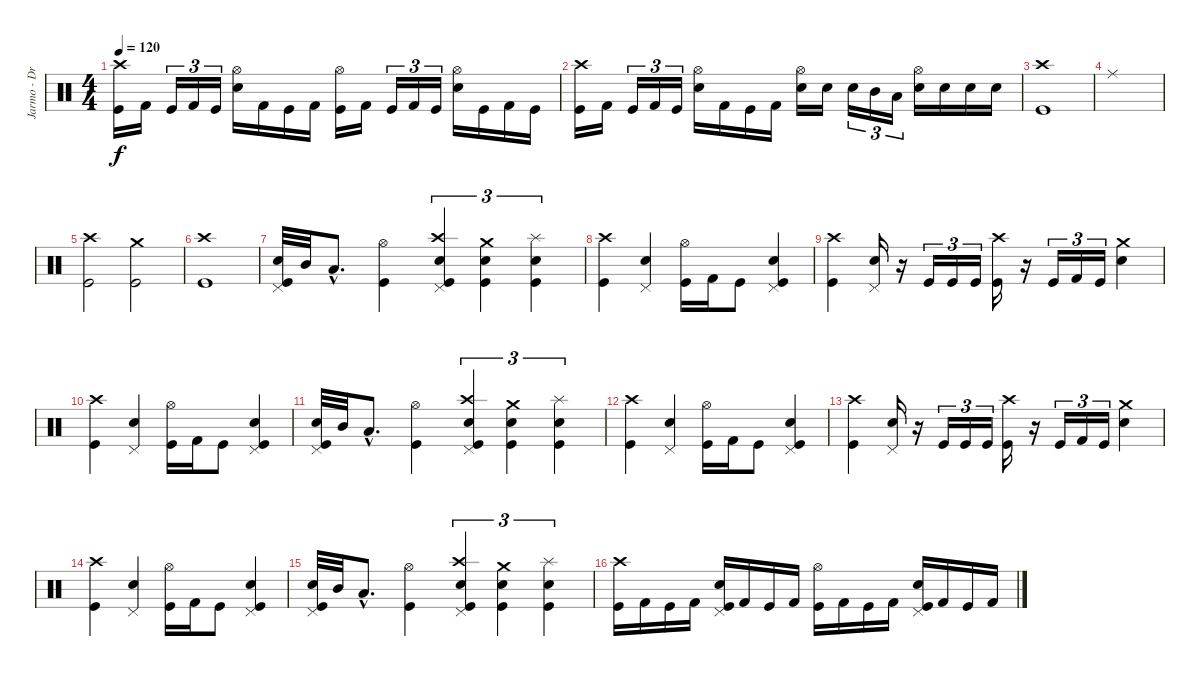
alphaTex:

\track ("Jarmo - Drums" "Jarmo - Dr") {instrument percussion}
\staff {score}
\articulation defaults
\ts (4 4)
\tempo 120
\clef neutral
\ks c
("Kick (hit)" "Crash high (hit)").16{dy f} "Kick (hit) 2".16 "Kick (hit)".16{tu (3 2)} "Kick (hit) 2".16{tu (3 2)} "Kick (hit)".16{tu (3 2)} ("Electric Snare (hit)" "Hi-Hat (open)").16 "Kick (hit) 2".16 "Kick (hit)".16 "Kick (hit) 2".16 ("Kick (hit)" "Hi-Hat (open)").16 "Kick (hit) 2".16 "Kick (hit)".16{tu (3 2)} "Kick (hit) 2".16{tu (3 2)} "Kick (hit)".16{tu (3 2)} ("Electric Snare (hit)" "Hi-Hat (open)").16 "Kick (hit)".16 "Kick (hit) 2".16 "Kick (hit)".16 |
("Kick (hit)" "Crash high (hit)").16 "Kick (hit) 2".16 "Kick (hit)".16{tu (3 2)} "Kick (hit) 2".16{tu (3 2)} "Kick (hit)".16{tu (3 2)} ("Electric Snare (hit)" "Hi-Hat (open)").16 "Kick (hit) 2".16 "Kick (hit)".16 "Kick (hit) 2".16 ("Electric Snare (hit)" "Hi-Hat (open)").16 "Electric Snare (hit)".16 "Electric Snare (hit)".16{tu (3 2)} "Mid Tom (hit)".16{tu (3 2)} "Low Tom (hit)".16{tu (3 2)} ("Electric Snare (hit)" "Hi-Hat (open)").16 "Electric Snare (hit)".16 "Electric Snare (hit)".16 "Electric Snare (hit)".16 |
("Kick (hit)" "Crash high (hit)").1 |
"Ride (middle)".1 |
("Kick (hit)" "Crash high (hit)").2 ("Kick (hit)" "Crash medium (hit)").2 |
("Kick (hit)" "Crash high (hit)").1 |
("Kick (hit)" "Electric Snare (hit)" "Pedal Hi-Hat (hit)").32 "Mid Tom (hit)".32 "Low Tom (hit)"{hac}.8{d} ("Kick (hit)" "Hi-Hat (open)").4 ("Kick (hit)" "Electric Snare (hit)" "Pedal Hi-Hat (hit)" "Crash high (hit)").4{tu (3 2)} ("Kick (hit)" "Electric Snare (hit)" "Crash medium (hit)").4{tu (3 2)} ("Kick (hit)" "Electric Snare (hit)" "Splash (hit)").4{tu (3 2)} |
("Kick (hit)" "Crash high (hit)").4 ("Electric Snare (hit)" "Pedal Hi-Hat (hit)").4 ("Kick (hit)" "Hi-Hat (open)").16 "Kick (hit) 2".16 "Kick (hit)".8 ("Kick (hit)" "Electric Snare (hit)" "Pedal Hi-Hat (hit)").4 |
("Kick (hit)" "Crash high (hit)").4 ("Electric Snare (hit)" "Pedal Hi-Hat (hit)").16 r.16 "Kick (hit)".16{tu (3 2)} "Kick (hit)".16{tu (3 2)} "Kick (hit)".16{tu (3 2)} ("Kick (hit)" "Crash high (hit)").16 r.16 "Kick (hit)".16{tu (3 2)} "Kick (hit) 2".16{tu (3 2)} "Kick (hit)".16{tu (3 2)} ("Electric Snare (hit)" "Crash medium (hit)").4 |
("Kick (hit)" "Crash high (hit)").4 ("Electric Snare (hit)" "Pedal Hi-Hat (hit)").4 ("Kick (hit)" "Hi-Hat (open)").16 "Kick (hit) 2".16 "Kick (hit)".8 ("Kick (hit)" "Electric Snare (hit)" "Pedal Hi-Hat (hit)").4 |
("Kick (hit)" "Electric Snare (hit)" "Pedal Hi-Hat (hit)").32 "Mid Tom (hit)".32 "Low Tom (hit)"{hac}.8{d} ("Kick (hit)" "Hi-Hat (open)").4 ("Kick (hit)" "Electric Snare (hit)" "Pedal Hi-Hat (hit)" "Crash high (hit)").4{tu (3 2)} ("Kick (hit)" "Electric Snare (hit)" "Crash medium (hit)").4{tu (3 2)} ("Kick (hit)" "Electric Snare (hit)" "Splash (hit)").4{tu (3 2)} |
("Kick (hit)" "Crash high (hit)").4 ("Electric Snare (hit)" "Pedal Hi-Hat (hit)").4 ("Kick (hit)" "Hi-Hat (open)").16 "Kick (hit) 2".16 "Kick (hit)".8 ("Kick (hit)" "Electric Snare (hit)" "Pedal Hi-Hat (hit)").4 |
("Kick (hit)" "Crash high (hit)").4 ("Electric Snare (hit)" "Pedal Hi-Hat (hit)").16 r.16 "Kick (hit)".16{tu (3 2)} "Kick (hit)".16{tu (3 2)} "Kick (hit)".16{tu (3 2)} ("Kick (hit)" "Crash high (hit)").16 r.16 "Kick (hit)".16{tu (3 2)} "Kick (hit) 2".16{tu (3 2)} "Kick (hit)".16{tu (3 2)} ("Electric Snare (hit)" "Crash medium (hit)").4 |
("Kick (hit)" "Crash high (hit)").4 ("Electric Snare (hit)" "Pedal Hi-Hat (hit)").4 ("Kick (hit)" "Hi-Hat (open)").16 "Kick (hit) 2".16 "Kick (hit)".8 ("Kick (hit)" "Electric Snare (hit)" "Pedal Hi-Hat (hit)").4 |
("Kick (hit)" "Electric Snare (hit)" "Pedal Hi-Hat (hit)").32 "Mid Tom (hit)".32 "Low Tom (hit)"{hac}.8{d} ("Kick (hit)" "Hi-Hat (open)").4 ("Kick (hit)" "Electric Snare (hit)" "Pedal Hi-Hat (hit)" "Crash high (hit)").4{tu (3 2)} ("Kick (hit)" "Electric Snare (hit)" "Crash medium (hit)").4{tu (3 2)} ("Kick (hit)" "Electric Snare (hit)" "Splash (hit)").4{tu (3 2)} |
("Kick (hit)" "Crash high (hit)").16 "Kick (hit) 2".16 "Kick (hit)".16 "Kick (hit) 2".16 ("Kick (hit)" "Electric Snare (hit)" "Pedal Hi-Hat (hit)").16 "Kick (hit) 2".16 "Kick (hit)".16 "Kick (hit) 2".16 ("Kick (hit)" "Hi-Hat (open)").16 "Kick (hit) 2".16 "Kick (hit)".16 "Kick (hit) 2".16 ("Kick (hit)" "Electric Snare (hit)" "Pedal Hi-Hat (hit)").16 "Kick (hit) 2".16 "Kick (hit)".16 "Kick (hit) 2".16
